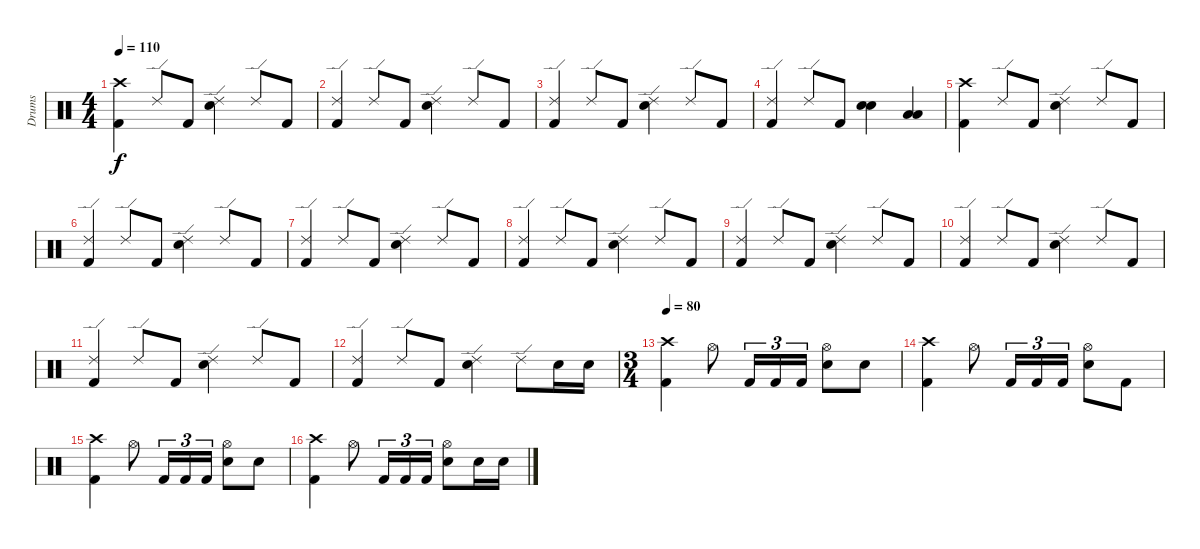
\track ("Drums" "Drums") {instrument percussion}
\staff {score}
\articulation defaults
\ts (4 4)
\tempo 110
\clef neutral
\ks c
("Crash high (hit)" "Kick (hit) 2").4{dy f} "Ride (edge) 2".8 "Kick (hit) 2".8 ("Ride (edge) 2" "Electric Snare (hit)").4 "Ride (edge) 2".8 "Kick (hit) 2".8 |
("Ride (edge) 2" "Kick (hit) 2").4 "Ride (edge) 2".8 "Kick (hit) 2".8 ("Ride (edge) 2" "Electric Snare (hit)").4 "Ride (edge) 2".8 "Kick (hit) 2".8 |
("Ride (edge) 2" "Kick (hit) 2").4 "Ride (edge) 2".8 "Kick (hit) 2".8 ("Ride (edge) 2" "Electric Snare (hit)").4 "Ride (edge) 2".8 "Kick (hit) 2".8 |
("Ride (edge) 2" "Kick (hit) 2").4 "Ride (edge) 2".8 "Kick (hit) 2".8 ("Electric Snare (hit)" "Electric Snare (hit)").4{bu 60} ("Low Tom (hit)" "Low Tom (hit)").4{bu 60} |
("Crash high (hit)" "Kick (hit) 2").4 "Ride (edge) 2".8 "Kick (hit) 2".8 ("Ride (edge) 2" "Electric Snare (hit)").4 "Ride (edge) 2".8 "Kick (hit) 2".8 |
("Ride (edge) 2" "Kick (hit) 2").4 "Ride (edge) 2".8 "Kick (hit) 2".8 ("Ride (edge) 2" "Electric Snare (hit)").4 "Ride (edge) 2".8 "Kick (hit) 2".8 |
("Ride (edge) 2" "Kick (hit) 2").4 "Ride (edge) 2".8 "Kick (hit) 2".8 ("Ride (edge) 2" "Electric Snare (hit)").4 "Ride (edge) 2".8 "Kick (hit) 2".8 |
("Ride (edge) 2" "Kick (hit) 2").4 "Ride (edge) 2".8 "Kick (hit) 2".8 ("Ride (edge) 2" "Electric Snare (hit)").4 "Ride (edge) 2".8 "Kick (hit) 2".8 |
("Ride (edge) 2" "Kick (hit) 2").4 "Ride (edge) 2".8 "Kick (hit) 2".8 ("Ride (edge) 2" "Electric Snare (hit)").4 "Ride (edge) 2".8 "Kick (hit) 2".8 |
("Ride (edge) 2" "Kick (hit) 2").4 "Ride (edge) 2".8 "Kick (hit) 2".8 ("Ride (edge) 2" "Electric Snare (hit)").4 "Ride (edge) 2".8 "Kick (hit) 2".8 |
("Ride (edge) 2" "Kick (hit) 2").4 "Ride (edge) 2".8 "Kick (hit) 2".8 ("Ride (edge) 2" "Electric Snare (hit)").4 "Ride (edge) 2".8 "Kick (hit) 2".8 |
("Ride (edge) 2" "Kick (hit) 2").4 "Ride (edge) 2".8 "Kick (hit) 2".8 ("Ride (edge) 2" "Electric Snare (hit)").4 "Ride (edge) 2".8 "Electric Snare (hit)".16 "Electric Snare (hit)".16 |
\ts (3 4)
\tempo 80
("Crash high (hit)" "Kick (hit) 2").4 "Hi-Hat (open)".8 "Kick (hit) 2".16{tu (3 2)} "Kick (hit) 2".16{tu (3 2)} "Kick (hit) 2".16{tu (3 2)} ("Hi-Hat (open)" "Electric Snare (hit)").8 "Electric Snare (hit)".8 |
("Crash high (hit)" "Kick (hit) 2").4 "Hi-Hat (open)".8 "Kick (hit) 2".16{tu (3 2)} "Kick (hit) 2".16{tu (3 2)} "Kick (hit) 2".16{tu (3 2)} ("Hi-Hat (open)" "Electric Snare (hit)").8 "Kick (hit) 2".8 |
("Crash high (hit)" "Kick (hit) 2").4 "Hi-Hat (open)".8 "Kick (hit) 2".16{tu (3 2)} "Kick (hit) 2".16{tu (3 2)} "Kick (hit) 2".16{tu (3 2)} ("Hi-Hat (open)" "Electric Snare (hit)").8 "Electric Snare (hit)".8 |
("Crash high (hit)" "Kick (hit) 2").4 "Hi-Hat (open)".8 "Kick (hit) 2".16{tu (3 2)} "Kick (hit) 2".16{tu (3 2)} "Kick (hit) 2".16{tu (3 2)} ("Hi-Hat (open)" "Electric Snare (hit)").8 "Electric Snare (hit)".16 "Electric Snare (hit)".16
